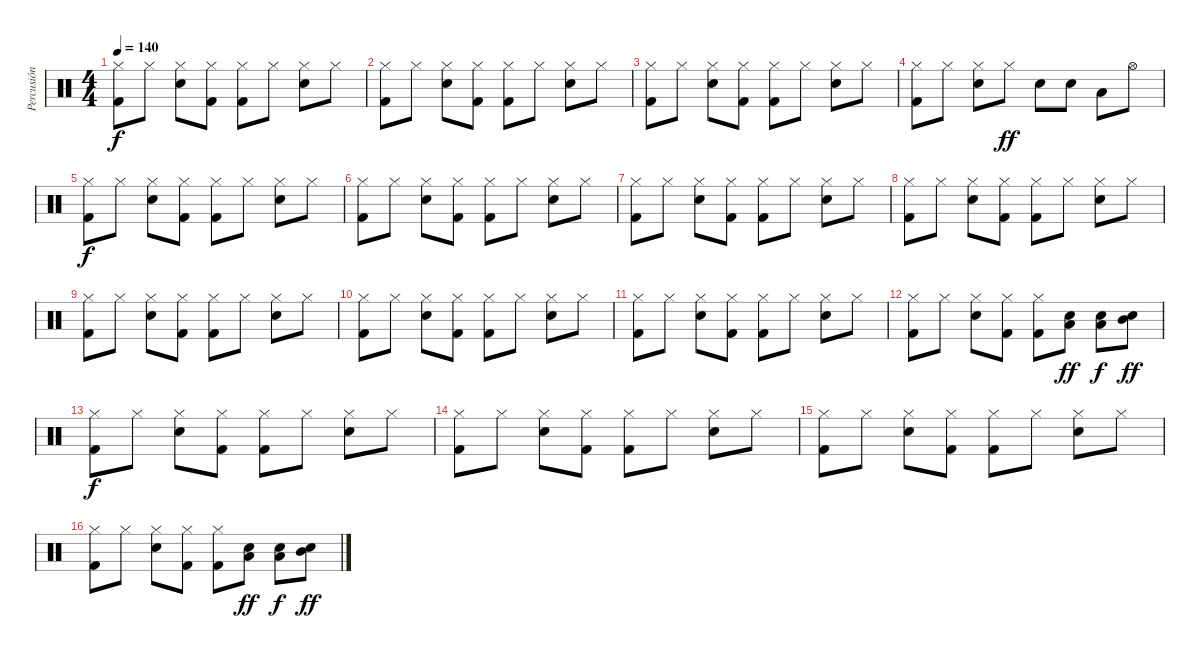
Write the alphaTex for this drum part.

\track ("Percusión" "Percusión") {instrument percussion}
\staff {score}
\articulation defaults
\ts (4 4)
\tempo 140
\clef neutral
\ks c
("Hi-Hat (closed)" "Kick (hit) 2").8{dy f} "Hi-Hat (closed)".8 ("Hi-Hat (closed)" "Snare (hit) 2").8 ("Hi-Hat (closed)" "Kick (hit) 2").8 ("Hi-Hat (closed)" "Kick (hit) 2").8 "Hi-Hat (closed)".8 ("Hi-Hat (closed)" "Snare (hit) 2").8 "Hi-Hat (closed)".8 |
("Hi-Hat (closed)" "Kick (hit) 2").8 "Hi-Hat (closed)".8 ("Hi-Hat (closed)" "Snare (hit) 2").8 ("Hi-Hat (closed)" "Kick (hit) 2").8 ("Hi-Hat (closed)" "Kick (hit) 2").8 "Hi-Hat (closed)".8 ("Hi-Hat (closed)" "Snare (hit) 2").8 "Hi-Hat (closed)".8 |
("Hi-Hat (closed)" "Kick (hit) 2").8 "Hi-Hat (closed)".8 ("Hi-Hat (closed)" "Snare (hit) 2").8 ("Hi-Hat (closed)" "Kick (hit) 2").8 ("Hi-Hat (closed)" "Kick (hit) 2").8 "Hi-Hat (closed)".8 ("Hi-Hat (closed)" "Snare (hit) 2").8 "Hi-Hat (closed)".8 |
("Hi-Hat (closed)" "Kick (hit) 2").8 "Hi-Hat (closed)".8 ("Hi-Hat (closed)" "Snare (hit) 2").8 "Hi-Hat (closed)".8{dy ff} "Snare (hit) 2".8 "Snare (hit) 2".8 "Low Tom (hit)".8 "Hi-Hat (open)".8 |
("Hi-Hat (closed)" "Kick (hit) 2").8{dy f} "Hi-Hat (closed)".8 ("Hi-Hat (closed)" "Snare (hit) 2").8 ("Hi-Hat (closed)" "Kick (hit) 2").8 ("Hi-Hat (closed)" "Kick (hit) 2").8 "Hi-Hat (closed)".8 ("Hi-Hat (closed)" "Snare (hit) 2").8 "Hi-Hat (closed)".8 |
("Hi-Hat (closed)" "Kick (hit) 2").8 "Hi-Hat (closed)".8 ("Hi-Hat (closed)" "Snare (hit) 2").8 ("Hi-Hat (closed)" "Kick (hit) 2").8 ("Hi-Hat (closed)" "Kick (hit) 2").8 "Hi-Hat (closed)".8 ("Hi-Hat (closed)" "Snare (hit) 2").8 "Hi-Hat (closed)".8 |
("Hi-Hat (closed)" "Kick (hit) 2").8 "Hi-Hat (closed)".8 ("Hi-Hat (closed)" "Snare (hit) 2").8 ("Hi-Hat (closed)" "Kick (hit) 2").8 ("Hi-Hat (closed)" "Kick (hit) 2").8 "Hi-Hat (closed)".8 ("Hi-Hat (closed)" "Snare (hit) 2").8 "Hi-Hat (closed)".8 |
("Hi-Hat (closed)" "Kick (hit) 2").8 "Hi-Hat (closed)".8 ("Hi-Hat (closed)" "Snare (hit) 2").8 ("Hi-Hat (closed)" "Kick (hit) 2").8 ("Hi-Hat (closed)" "Kick (hit) 2").8 "Hi-Hat (closed)".8 ("Hi-Hat (closed)" "Snare (hit) 2").8 "Hi-Hat (closed)".8 |
("Hi-Hat (closed)" "Kick (hit) 2").8 "Hi-Hat (closed)".8 ("Hi-Hat (closed)" "Snare (hit) 2").8 ("Hi-Hat (closed)" "Kick (hit) 2").8 ("Hi-Hat (closed)" "Kick (hit) 2").8 "Hi-Hat (closed)".8 ("Hi-Hat (closed)" "Snare (hit) 2").8 "Hi-Hat (closed)".8 |
("Hi-Hat (closed)" "Kick (hit) 2").8 "Hi-Hat (closed)".8 ("Hi-Hat (closed)" "Snare (hit) 2").8 ("Hi-Hat (closed)" "Kick (hit) 2").8 ("Hi-Hat (closed)" "Kick (hit) 2").8 "Hi-Hat (closed)".8 ("Hi-Hat (closed)" "Snare (hit) 2").8 "Hi-Hat (closed)".8 |
("Hi-Hat (closed)" "Kick (hit) 2").8 "Hi-Hat (closed)".8 ("Hi-Hat (closed)" "Snare (hit) 2").8 ("Hi-Hat (closed)" "Kick (hit) 2").8 ("Hi-Hat (closed)" "Kick (hit) 2").8 "Hi-Hat (closed)".8 ("Hi-Hat (closed)" "Snare (hit) 2").8 "Hi-Hat (closed)".8 |
("Hi-Hat (closed)" "Kick (hit) 2").8 "Hi-Hat (closed)".8 ("Hi-Hat (closed)" "Snare (hit) 2").8 ("Hi-Hat (closed)" "Kick (hit) 2").8 ("Hi-Hat (closed)" "Kick (hit) 2").8 ("Low Floor Tom (hit)" "Snare (hit) 2").8{dy ff} ("Low Tom (hit)" "Snare (hit) 2").8{dy f} ("Mid Tom (hit)" "Snare (hit) 2").8{dy ff} |
("Hi-Hat (closed)" "Kick (hit) 2").8{dy f} "Hi-Hat (closed)".8 ("Hi-Hat (closed)" "Snare (hit) 2").8 ("Hi-Hat (closed)" "Kick (hit) 2").8 ("Hi-Hat (closed)" "Kick (hit) 2").8 "Hi-Hat (closed)".8 ("Hi-Hat (closed)" "Snare (hit) 2").8 "Hi-Hat (closed)".8 |
("Hi-Hat (closed)" "Kick (hit) 2").8 "Hi-Hat (closed)".8 ("Hi-Hat (closed)" "Snare (hit) 2").8 ("Hi-Hat (closed)" "Kick (hit) 2").8 ("Hi-Hat (closed)" "Kick (hit) 2").8 "Hi-Hat (closed)".8 ("Hi-Hat (closed)" "Snare (hit) 2").8 "Hi-Hat (closed)".8 |
("Hi-Hat (closed)" "Kick (hit) 2").8 "Hi-Hat (closed)".8 ("Hi-Hat (closed)" "Snare (hit) 2").8 ("Hi-Hat (closed)" "Kick (hit) 2").8 ("Hi-Hat (closed)" "Kick (hit) 2").8 "Hi-Hat (closed)".8 ("Hi-Hat (closed)" "Snare (hit) 2").8 "Hi-Hat (closed)".8 |
("Hi-Hat (closed)" "Kick (hit) 2").8 "Hi-Hat (closed)".8 ("Hi-Hat (closed)" "Snare (hit) 2").8 ("Hi-Hat (closed)" "Kick (hit) 2").8 ("Hi-Hat (closed)" "Kick (hit) 2").8 ("Low Floor Tom (hit)" "Snare (hit) 2").8{dy ff} ("Low Tom (hit)" "Snare (hit) 2").8{dy f} ("Mid Tom (hit)" "Snare (hit) 2").8{dy ff}
